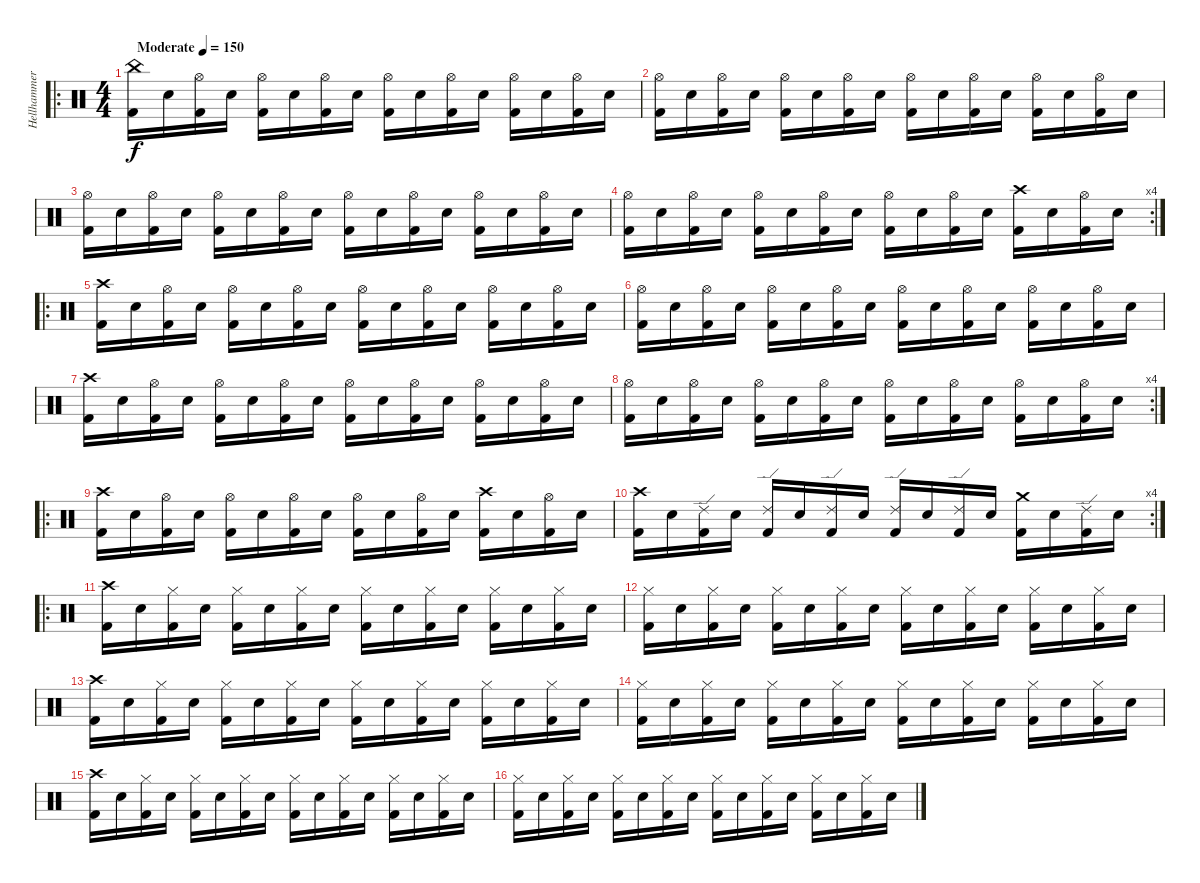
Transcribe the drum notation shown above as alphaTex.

\track ("Hellhammer" "Hellhammer") {instrument percussion}
\staff {score}
\articulation defaults
\ro
\ts (4 4)
\tempo (150 "Moderate")
\clef neutral
\ks c
("Kick (hit) 2" "China (hit)").16{dy f} "Snare (hit) 2".16 ("Kick (hit) 2" "Hi-Hat (open)").16 "Snare (hit) 2".16 ("Kick (hit) 2" "Hi-Hat (open)").16 "Snare (hit) 2".16 ("Kick (hit) 2" "Hi-Hat (open)").16 "Snare (hit) 2".16 ("Kick (hit) 2" "Hi-Hat (open)").16 "Snare (hit) 2".16 ("Kick (hit) 2" "Hi-Hat (open)").16 "Snare (hit) 2".16 ("Kick (hit) 2" "Hi-Hat (open)").16 "Snare (hit) 2".16 ("Kick (hit) 2" "Hi-Hat (open)").16 "Snare (hit) 2".16 |
("Kick (hit) 2" "Hi-Hat (open)").16 "Snare (hit) 2".16 ("Kick (hit) 2" "Hi-Hat (open)").16 "Snare (hit) 2".16 ("Kick (hit) 2" "Hi-Hat (open)").16 "Snare (hit) 2".16 ("Kick (hit) 2" "Hi-Hat (open)").16 "Snare (hit) 2".16 ("Kick (hit) 2" "Hi-Hat (open)").16 "Snare (hit) 2".16 ("Kick (hit) 2" "Hi-Hat (open)").16 "Snare (hit) 2".16 ("Kick (hit) 2" "Hi-Hat (open)").16 "Snare (hit) 2".16 ("Kick (hit) 2" "Hi-Hat (open)").16 "Snare (hit) 2".16 |
("Kick (hit) 2" "Hi-Hat (open)").16 "Snare (hit) 2".16 ("Kick (hit) 2" "Hi-Hat (open)").16 "Snare (hit) 2".16 ("Kick (hit) 2" "Hi-Hat (open)").16 "Snare (hit) 2".16 ("Kick (hit) 2" "Hi-Hat (open)").16 "Snare (hit) 2".16 ("Kick (hit) 2" "Hi-Hat (open)").16 "Snare (hit) 2".16 ("Kick (hit) 2" "Hi-Hat (open)").16 "Snare (hit) 2".16 ("Kick (hit) 2" "Hi-Hat (open)").16 "Snare (hit) 2".16 ("Kick (hit) 2" "Hi-Hat (open)").16 "Snare (hit) 2".16 |
\rc 4
("Kick (hit) 2" "Hi-Hat (open)").16 "Snare (hit) 2".16 ("Kick (hit) 2" "Hi-Hat (open)").16 "Snare (hit) 2".16 ("Kick (hit) 2" "Hi-Hat (open)").16 "Snare (hit) 2".16 ("Kick (hit) 2" "Hi-Hat (open)").16 "Snare (hit) 2".16 ("Kick (hit) 2" "Hi-Hat (open)").16 "Snare (hit) 2".16 ("Kick (hit) 2" "Hi-Hat (open)").16 "Snare (hit) 2".16 ("Kick (hit) 2" "Crash high (hit)").16 "Snare (hit) 2".16 ("Kick (hit) 2" "Hi-Hat (open)").16 "Snare (hit) 2".16 |
\ro
("Kick (hit) 2" "Crash high (hit)").16 "Snare (hit) 2".16 ("Kick (hit) 2" "Hi-Hat (open)").16 "Snare (hit) 2".16 ("Kick (hit) 2" "Hi-Hat (open)").16 "Snare (hit) 2".16 ("Kick (hit) 2" "Hi-Hat (open)").16 "Snare (hit) 2".16 ("Kick (hit) 2" "Hi-Hat (open)").16 "Snare (hit) 2".16 ("Kick (hit) 2" "Hi-Hat (open)").16 "Snare (hit) 2".16 ("Kick (hit) 2" "Hi-Hat (open)").16 "Snare (hit) 2".16 ("Kick (hit) 2" "Hi-Hat (open)").16 "Snare (hit) 2".16 |
("Kick (hit) 2" "Hi-Hat (open)").16 "Snare (hit) 2".16 ("Kick (hit) 2" "Hi-Hat (open)").16 "Snare (hit) 2".16 ("Kick (hit) 2" "Hi-Hat (open)").16 "Snare (hit) 2".16 ("Kick (hit) 2" "Hi-Hat (open)").16 "Snare (hit) 2".16 ("Kick (hit) 2" "Hi-Hat (open)").16 "Snare (hit) 2".16 ("Kick (hit) 2" "Hi-Hat (open)").16 "Snare (hit) 2".16 ("Kick (hit) 2" "Hi-Hat (open)").16 "Snare (hit) 2".16 ("Kick (hit) 2" "Hi-Hat (open)").16 "Snare (hit) 2".16 |
("Kick (hit) 2" "Crash high (hit)").16 "Snare (hit) 2".16 ("Kick (hit) 2" "Hi-Hat (open)").16 "Snare (hit) 2".16 ("Kick (hit) 2" "Hi-Hat (open)").16 "Snare (hit) 2".16 ("Kick (hit) 2" "Hi-Hat (open)").16 "Snare (hit) 2".16 ("Kick (hit) 2" "Hi-Hat (open)").16 "Snare (hit) 2".16 ("Kick (hit) 2" "Hi-Hat (open)").16 "Snare (hit) 2".16 ("Kick (hit) 2" "Hi-Hat (open)").16 "Snare (hit) 2".16 ("Kick (hit) 2" "Hi-Hat (open)").16 "Snare (hit) 2".16 |
\rc 4
("Kick (hit) 2" "Hi-Hat (open)").16 "Snare (hit) 2".16 ("Kick (hit) 2" "Hi-Hat (open)").16 "Snare (hit) 2".16 ("Kick (hit) 2" "Hi-Hat (open)").16 "Snare (hit) 2".16 ("Kick (hit) 2" "Hi-Hat (open)").16 "Snare (hit) 2".16 ("Kick (hit) 2" "Hi-Hat (open)").16 "Snare (hit) 2".16 ("Kick (hit) 2" "Hi-Hat (open)").16 "Snare (hit) 2".16 ("Kick (hit) 2" "Hi-Hat (open)").16 "Snare (hit) 2".16 ("Kick (hit) 2" "Hi-Hat (open)").16 "Snare (hit) 2".16 |
\ro
("Kick (hit) 2" "Crash high (hit)").16 "Snare (hit) 2".16 ("Kick (hit) 2" "Hi-Hat (open)").16 "Snare (hit) 2".16 ("Kick (hit) 2" "Hi-Hat (open)").16 "Snare (hit) 2".16 ("Kick (hit) 2" "Hi-Hat (open)").16 "Snare (hit) 2".16 ("Kick (hit) 2" "Hi-Hat (open)").16 "Snare (hit) 2".16 ("Kick (hit) 2" "Hi-Hat (open)").16 "Snare (hit) 2".16 ("Kick (hit) 2" "Crash high (hit)").16 "Snare (hit) 2".16 ("Kick (hit) 2" "Hi-Hat (open)").16 "Snare (hit) 2".16 |
\rc 4
("Kick (hit) 2" "Crash high (hit)").16 "Snare (hit) 2".16 ("Kick (hit) 2" "Ride (edge) 2").16 "Snare (hit) 2".16 ("Kick (hit) 2" "Ride (edge) 2").16 "Snare (hit) 2".16 ("Kick (hit) 2" "Ride (edge) 2").16 "Snare (hit) 2".16 ("Kick (hit) 2" "Ride (edge) 2").16 "Snare (hit) 2".16 ("Kick (hit) 2" "Ride (edge) 2").16 "Snare (hit) 2".16 ("Kick (hit) 2" "Crash medium (hit)").16 "Snare (hit) 2".16 ("Kick (hit) 2" "Ride (edge) 2").16 "Snare (hit) 2".16 |
\ro
("Kick (hit) 2" "Crash high (hit)").16 "Snare (hit) 2".16 ("Kick (hit) 2" "Hi-Hat (closed)").16 "Snare (hit) 2".16 ("Kick (hit) 2" "Hi-Hat (closed)").16 "Snare (hit) 2".16 ("Kick (hit) 2" "Hi-Hat (closed)").16 "Snare (hit) 2".16 ("Kick (hit) 2" "Hi-Hat (closed)").16 "Snare (hit) 2".16 ("Kick (hit) 2" "Hi-Hat (closed)").16 "Snare (hit) 2".16 ("Kick (hit) 2" "Hi-Hat (closed)").16 "Snare (hit) 2".16 ("Kick (hit) 2" "Hi-Hat (closed)").16 "Snare (hit) 2".16 |
("Kick (hit) 2" "Hi-Hat (closed)").16 "Snare (hit) 2".16 ("Kick (hit) 2" "Hi-Hat (closed)").16 "Snare (hit) 2".16 ("Kick (hit) 2" "Hi-Hat (closed)").16 "Snare (hit) 2".16 ("Kick (hit) 2" "Hi-Hat (closed)").16 "Snare (hit) 2".16 ("Kick (hit) 2" "Hi-Hat (closed)").16 "Snare (hit) 2".16 ("Kick (hit) 2" "Hi-Hat (closed)").16 "Snare (hit) 2".16 ("Kick (hit) 2" "Hi-Hat (closed)").16 "Snare (hit) 2".16 ("Kick (hit) 2" "Hi-Hat (closed)").16 "Snare (hit) 2".16 |
("Kick (hit) 2" "Crash high (hit)").16 "Snare (hit) 2".16 ("Kick (hit) 2" "Hi-Hat (closed)").16 "Snare (hit) 2".16 ("Kick (hit) 2" "Hi-Hat (closed)").16 "Snare (hit) 2".16 ("Kick (hit) 2" "Hi-Hat (closed)").16 "Snare (hit) 2".16 ("Kick (hit) 2" "Hi-Hat (closed)").16 "Snare (hit) 2".16 ("Kick (hit) 2" "Hi-Hat (closed)").16 "Snare (hit) 2".16 ("Kick (hit) 2" "Hi-Hat (closed)").16 "Snare (hit) 2".16 ("Kick (hit) 2" "Hi-Hat (closed)").16 "Snare (hit) 2".16 |
("Kick (hit) 2" "Hi-Hat (closed)").16 "Snare (hit) 2".16 ("Kick (hit) 2" "Hi-Hat (closed)").16 "Snare (hit) 2".16 ("Kick (hit) 2" "Hi-Hat (closed)").16 "Snare (hit) 2".16 ("Kick (hit) 2" "Hi-Hat (closed)").16 "Snare (hit) 2".16 ("Kick (hit) 2" "Hi-Hat (closed)").16 "Snare (hit) 2".16 ("Kick (hit) 2" "Hi-Hat (closed)").16 "Snare (hit) 2".16 ("Kick (hit) 2" "Hi-Hat (closed)").16 "Snare (hit) 2".16 ("Kick (hit) 2" "Hi-Hat (closed)").16 "Snare (hit) 2".16 |
("Kick (hit) 2" "Crash high (hit)").16 "Snare (hit) 2".16 ("Kick (hit) 2" "Hi-Hat (closed)").16 "Snare (hit) 2".16 ("Kick (hit) 2" "Hi-Hat (closed)").16 "Snare (hit) 2".16 ("Kick (hit) 2" "Hi-Hat (closed)").16 "Snare (hit) 2".16 ("Kick (hit) 2" "Hi-Hat (closed)").16 "Snare (hit) 2".16 ("Kick (hit) 2" "Hi-Hat (closed)").16 "Snare (hit) 2".16 ("Kick (hit) 2" "Hi-Hat (closed)").16 "Snare (hit) 2".16 ("Kick (hit) 2" "Hi-Hat (closed)").16 "Snare (hit) 2".16 |
("Kick (hit) 2" "Hi-Hat (closed)").16 "Snare (hit) 2".16 ("Kick (hit) 2" "Hi-Hat (closed)").16 "Snare (hit) 2".16 ("Kick (hit) 2" "Hi-Hat (closed)").16 "Snare (hit) 2".16 ("Kick (hit) 2" "Hi-Hat (closed)").16 "Snare (hit) 2".16 ("Kick (hit) 2" "Hi-Hat (closed)").16 "Snare (hit) 2".16 ("Kick (hit) 2" "Hi-Hat (closed)").16 "Snare (hit) 2".16 ("Kick (hit) 2" "Hi-Hat (closed)").16 "Snare (hit) 2".16 ("Kick (hit) 2" "Hi-Hat (closed)").16 "Snare (hit) 2".16
